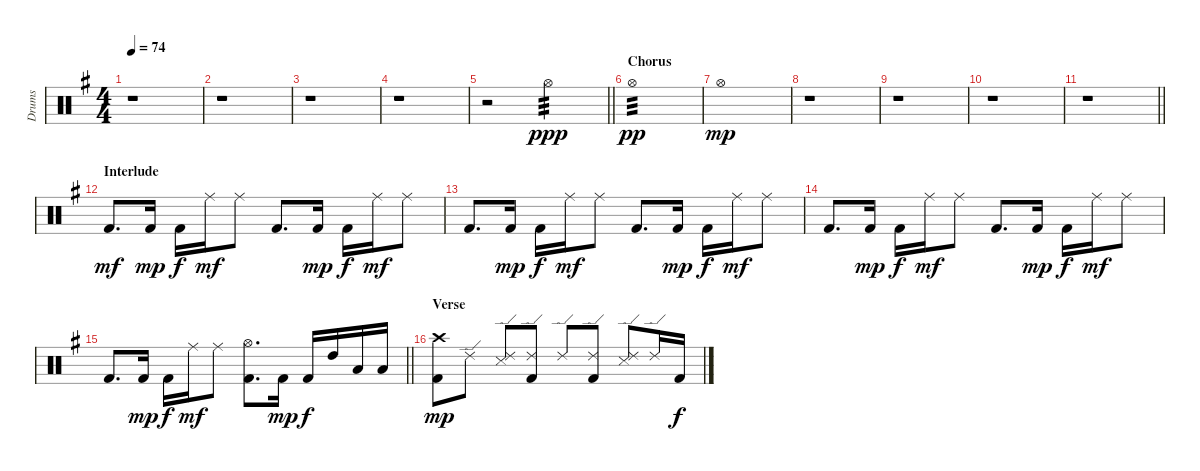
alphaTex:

\track ("Drums" "Drums") {instrument percussion}
\staff {score}
\articulation defaults
\ts (4 4)
\tempo 74
\clef neutral
\ks g
r.1{dy f} |
r.1 |
r.1 |
r.1 |
\barLineRight lightlight
r.2 "Hi-Hat (open)".2{tp 3 dy ppp} |
\section ("" "Chorus")
"Hi-Hat (open)".1{tp 3 dy pp} |
"Hi-Hat (open)".1{dy mp} |
r.1 |
r.1 |
r.1 |
\barLineRight lightlight
r.1 |
\section ("" "Interlude")
"Kick (hit) 2".8{d dy mf} "Kick (hit) 2".16{dy mp} "Kick (hit) 2".16{dy f} "Ride (middle)".16{dy mf} "Ride (middle)".8 "Kick (hit) 2".8{d} "Kick (hit) 2".16{dy mp} "Kick (hit) 2".16{dy f} "Ride (middle)".16{dy mf} "Ride (middle)".8 |
"Kick (hit) 2".8{d} "Kick (hit) 2".16{dy mp} "Kick (hit) 2".16{dy f} "Ride (middle)".16{dy mf} "Ride (middle)".8 "Kick (hit) 2".8{d} "Kick (hit) 2".16{dy mp} "Kick (hit) 2".16{dy f} "Ride (middle)".16{dy mf} "Ride (middle)".8 |
"Kick (hit) 2".8{d} "Kick (hit) 2".16{dy mp} "Kick (hit) 2".16{dy f} "Ride (middle)".16{dy mf} "Ride (middle)".8 "Kick (hit) 2".8{d} "Kick (hit) 2".16{dy mp} "Kick (hit) 2".16{dy f} "Ride (middle)".16{dy mf} "Ride (middle)".8 |
\barLineRight lightlight "Kick (hit) 2".8{d} "Kick (hit) 2".16{dy mp} "Kick (hit) 2".16{dy f} "Ride (middle)".16{dy mf} "Ride (middle)".8
("Kick (hit) 2" "Hi-Hat (open)").8{d} "Kick (hit) 2".16{dy mp} "Kick (hit) 2".16{dy f} "High Tom (hit)".16 "Low Tom (hit)".16 "Low Tom (hit)".16 |
\section ("" "Verse")
("Kick (hit) 2" "Crash high (hit)").8{dy mp} "Ride (edge) 2".8 ("Snare (side stick) 3" "Ride (edge) 2").8 ("Kick (hit) 2" "Ride (edge) 2").8 "Ride (edge) 2".8 ("Kick (hit) 2" "Ride (edge) 2").8 ("Snare (side stick) 3" "Ride (edge) 2").8 "Ride (edge) 2".16 "Kick (hit) 2".16{dy f}
